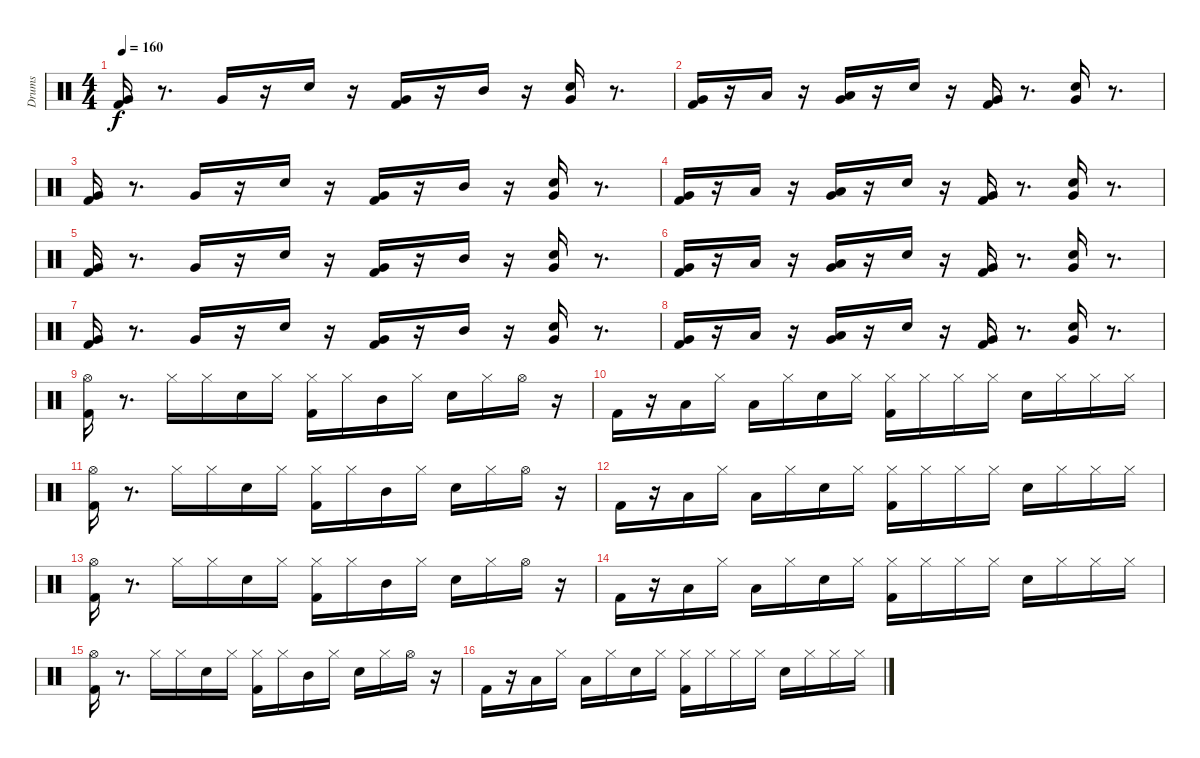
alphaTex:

\track ("Drums" "Drums") {instrument percussion}
\staff {score}
\articulation defaults
\ts (4 4)
\tempo 160
\clef neutral
\ks c
("Very Low Tom (hit)" "Kick (hit) 2").16{dy f} r.8{d} "Very Low Tom (hit)".16 r.16 "Electric Snare (hit)".16 r.16 ("Very Low Tom (hit)" "Kick (hit) 2").16 r.16 "Mid Tom (hit)".16 r.16 ("Very Low Tom (hit)" "Electric Snare (hit)").16 r.8{d} |
("Very Low Tom (hit)" "Kick (hit) 2").16 r.16 "Low Tom (hit)".16 r.16 ("Very Low Tom (hit)" "Low Tom (hit)").16 r.16 "Electric Snare (hit)".16 r.16 ("Very Low Tom (hit)" "Kick (hit) 2").16 r.8{d} ("Very Low Tom (hit)" "Electric Snare (hit)").16 r.8{d} |
("Very Low Tom (hit)" "Kick (hit) 2").16 r.8{d} "Very Low Tom (hit)".16 r.16 "Electric Snare (hit)".16 r.16 ("Very Low Tom (hit)" "Kick (hit) 2").16 r.16 "Mid Tom (hit)".16 r.16 ("Very Low Tom (hit)" "Electric Snare (hit)").16 r.8{d} |
("Very Low Tom (hit)" "Kick (hit) 2").16 r.16 "Low Tom (hit)".16 r.16 ("Very Low Tom (hit)" "Low Tom (hit)").16 r.16 "Electric Snare (hit)".16 r.16 ("Very Low Tom (hit)" "Kick (hit) 2").16 r.8{d} ("Very Low Tom (hit)" "Electric Snare (hit)").16 r.8{d} |
("Very Low Tom (hit)" "Kick (hit) 2").16 r.8{d} "Very Low Tom (hit)".16 r.16 "Electric Snare (hit)".16 r.16 ("Very Low Tom (hit)" "Kick (hit) 2").16 r.16 "Mid Tom (hit)".16 r.16 ("Very Low Tom (hit)" "Electric Snare (hit)").16 r.8{d} |
("Very Low Tom (hit)" "Kick (hit) 2").16 r.16 "Low Tom (hit)".16 r.16 ("Very Low Tom (hit)" "Low Tom (hit)").16 r.16 "Electric Snare (hit)".16 r.16 ("Very Low Tom (hit)" "Kick (hit) 2").16 r.8{d} ("Very Low Tom (hit)" "Electric Snare (hit)").16 r.8{d} |
("Very Low Tom (hit)" "Kick (hit) 2").16 r.8{d} "Very Low Tom (hit)".16 r.16 "Electric Snare (hit)".16 r.16 ("Very Low Tom (hit)" "Kick (hit) 2").16 r.16 "Mid Tom (hit)".16 r.16 ("Very Low Tom (hit)" "Electric Snare (hit)").16 r.8{d} |
("Very Low Tom (hit)" "Kick (hit) 2").16 r.16 "Low Tom (hit)".16 r.16 ("Very Low Tom (hit)" "Low Tom (hit)").16 r.16 "Electric Snare (hit)".16 r.16 ("Very Low Tom (hit)" "Kick (hit) 2").16 r.8{d} ("Very Low Tom (hit)" "Electric Snare (hit)").16 r.8{d} |
("Hi-Hat (open)" "Kick (hit) 2").16 r.8{d} "Hi-Hat (closed)".16 "Hi-Hat (closed)".16 "Electric Snare (hit)".16 "Hi-Hat (closed)".16 ("Hi-Hat (closed)" "Kick (hit) 2").16 "Hi-Hat (closed)".16 "Mid Tom (hit)".16 "Hi-Hat (closed)".16 "Electric Snare (hit)".16 "Hi-Hat (closed)".16 "Hi-Hat (open)".16 r.16 |
"Kick (hit) 2".16 r.16 "Low Tom (hit)".16 "Hi-Hat (closed)".16 "Low Tom (hit)".16 "Hi-Hat (closed)".16 "Electric Snare (hit)".16 "Hi-Hat (closed)".16 ("Hi-Hat (closed)" "Kick (hit) 2").16 "Hi-Hat (closed)".16 "Hi-Hat (closed)".16 "Hi-Hat (closed)".16 "Electric Snare (hit)".16 "Hi-Hat (closed)".16 "Hi-Hat (closed)".16 "Hi-Hat (closed)".16 |
("Hi-Hat (open)" "Kick (hit) 2").16 r.8{d} "Hi-Hat (closed)".16 "Hi-Hat (closed)".16 "Electric Snare (hit)".16 "Hi-Hat (closed)".16 ("Hi-Hat (closed)" "Kick (hit) 2").16 "Hi-Hat (closed)".16 "Mid Tom (hit)".16 "Hi-Hat (closed)".16 "Electric Snare (hit)".16 "Hi-Hat (closed)".16 "Hi-Hat (open)".16 r.16 |
"Kick (hit) 2".16 r.16 "Low Tom (hit)".16 "Hi-Hat (closed)".16 "Low Tom (hit)".16 "Hi-Hat (closed)".16 "Electric Snare (hit)".16 "Hi-Hat (closed)".16 ("Hi-Hat (closed)" "Kick (hit) 2").16 "Hi-Hat (closed)".16 "Hi-Hat (closed)".16 "Hi-Hat (closed)".16 "Electric Snare (hit)".16 "Hi-Hat (closed)".16 "Hi-Hat (closed)".16 "Hi-Hat (closed)".16 |
("Hi-Hat (open)" "Kick (hit) 2").16 r.8{d} "Hi-Hat (closed)".16 "Hi-Hat (closed)".16 "Electric Snare (hit)".16 "Hi-Hat (closed)".16 ("Hi-Hat (closed)" "Kick (hit) 2").16 "Hi-Hat (closed)".16 "Mid Tom (hit)".16 "Hi-Hat (closed)".16 "Electric Snare (hit)".16 "Hi-Hat (closed)".16 "Hi-Hat (open)".16 r.16 |
"Kick (hit) 2".16 r.16 "Low Tom (hit)".16 "Hi-Hat (closed)".16 "Low Tom (hit)".16 "Hi-Hat (closed)".16 "Electric Snare (hit)".16 "Hi-Hat (closed)".16 ("Hi-Hat (closed)" "Kick (hit) 2").16 "Hi-Hat (closed)".16 "Hi-Hat (closed)".16 "Hi-Hat (closed)".16 "Electric Snare (hit)".16 "Hi-Hat (closed)".16 "Hi-Hat (closed)".16 "Hi-Hat (closed)".16 |
("Hi-Hat (open)" "Kick (hit) 2").16 r.8{d} "Hi-Hat (closed)".16 "Hi-Hat (closed)".16 "Electric Snare (hit)".16 "Hi-Hat (closed)".16 ("Hi-Hat (closed)" "Kick (hit) 2").16 "Hi-Hat (closed)".16 "Mid Tom (hit)".16 "Hi-Hat (closed)".16 "Electric Snare (hit)".16 "Hi-Hat (closed)".16 "Hi-Hat (open)".16 r.16 |
"Kick (hit) 2".16 r.16 "Low Tom (hit)".16 "Hi-Hat (closed)".16 "Low Tom (hit)".16 "Hi-Hat (closed)".16 "Electric Snare (hit)".16 "Hi-Hat (closed)".16 ("Hi-Hat (closed)" "Kick (hit) 2").16 "Hi-Hat (closed)".16 "Hi-Hat (closed)".16 "Hi-Hat (closed)".16 "Electric Snare (hit)".16 "Hi-Hat (closed)".16 "Hi-Hat (closed)".16 "Hi-Hat (closed)".16
